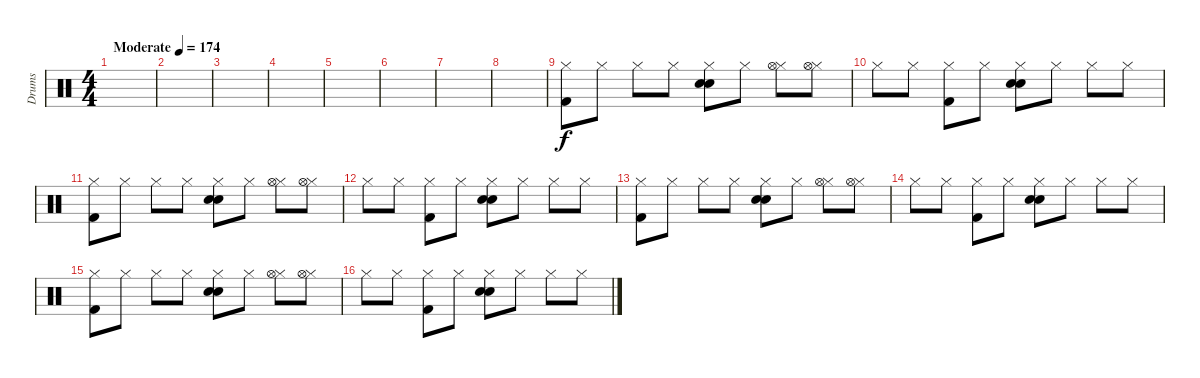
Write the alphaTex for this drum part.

\track ("Drums" "Drums") {instrument percussion}
\staff {score}
\articulation defaults
\ts (4 4)
\tempo (174 "Moderate")
\clef neutral
\ks c
|
|
|
|
|
|
|
|
("Hi-Hat (closed)" "Kick (hit) 2").8 "Hi-Hat (closed)".8 "Hi-Hat (closed)".8 "Hi-Hat (closed)".8 ("Hi-Hat (closed)" "Snare (hit) 2" "Hand Clap (hit)").8 "Hi-Hat (closed)".8 ("Hi-Hat (closed)" "Hi-Hat (open)").8 ("Hi-Hat (closed)" "Hi-Hat (open)").8 |
"Hi-Hat (closed)".8 "Hi-Hat (closed)".8 ("Hi-Hat (closed)" "Kick (hit) 2").8 "Hi-Hat (closed)".8 ("Hi-Hat (closed)" "Snare (hit) 2" "Hand Clap (hit)").8 "Hi-Hat (closed)".8 "Hi-Hat (closed)".8 "Hi-Hat (closed)".8 |
("Hi-Hat (closed)" "Kick (hit) 2").8 "Hi-Hat (closed)".8 "Hi-Hat (closed)".8 "Hi-Hat (closed)".8 ("Hi-Hat (closed)" "Snare (hit) 2" "Hand Clap (hit)").8 "Hi-Hat (closed)".8 ("Hi-Hat (closed)" "Hi-Hat (open)").8 ("Hi-Hat (closed)" "Hi-Hat (open)").8 |
"Hi-Hat (closed)".8 "Hi-Hat (closed)".8 ("Hi-Hat (closed)" "Kick (hit) 2").8 "Hi-Hat (closed)".8 ("Hi-Hat (closed)" "Snare (hit) 2" "Hand Clap (hit)").8 "Hi-Hat (closed)".8 "Hi-Hat (closed)".8 "Hi-Hat (closed)".8 |
("Hi-Hat (closed)" "Kick (hit) 2").8 "Hi-Hat (closed)".8 "Hi-Hat (closed)".8 "Hi-Hat (closed)".8 ("Hi-Hat (closed)" "Snare (hit) 2" "Hand Clap (hit)").8 "Hi-Hat (closed)".8 ("Hi-Hat (closed)" "Hi-Hat (open)").8 ("Hi-Hat (closed)" "Hi-Hat (open)").8 |
"Hi-Hat (closed)".8 "Hi-Hat (closed)".8 ("Hi-Hat (closed)" "Kick (hit) 2").8 "Hi-Hat (closed)".8 ("Hi-Hat (closed)" "Snare (hit) 2" "Hand Clap (hit)").8 "Hi-Hat (closed)".8 "Hi-Hat (closed)".8 "Hi-Hat (closed)".8 |
("Hi-Hat (closed)" "Kick (hit) 2").8 "Hi-Hat (closed)".8 "Hi-Hat (closed)".8 "Hi-Hat (closed)".8 ("Hi-Hat (closed)" "Snare (hit) 2" "Hand Clap (hit)").8 "Hi-Hat (closed)".8 ("Hi-Hat (closed)" "Hi-Hat (open)").8 ("Hi-Hat (closed)" "Hi-Hat (open)").8 |
"Hi-Hat (closed)".8 "Hi-Hat (closed)".8 ("Hi-Hat (closed)" "Kick (hit) 2").8 "Hi-Hat (closed)".8 ("Hi-Hat (closed)" "Snare (hit) 2" "Hand Clap (hit)").8 "Hi-Hat (closed)".8 "Hi-Hat (closed)".8 "Hi-Hat (closed)".8
